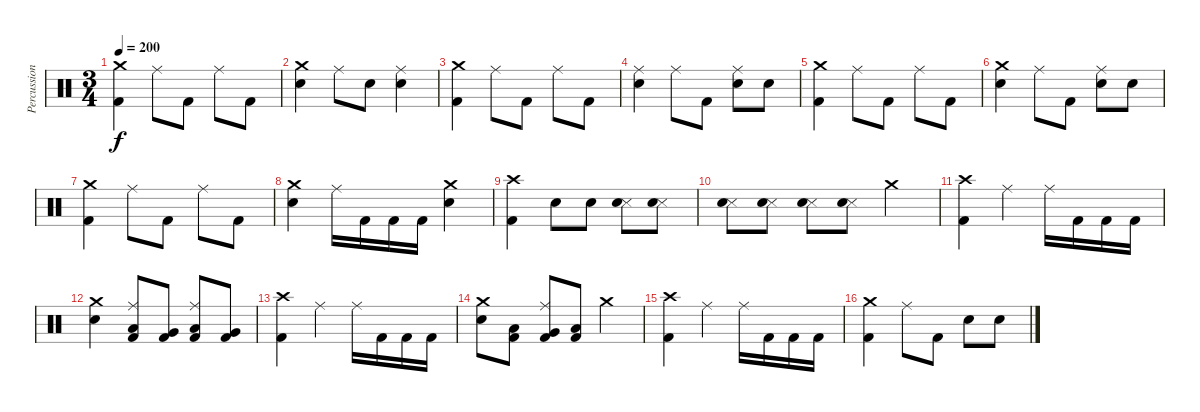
\track ("Percussion" "Percussion") {instrument percussion}
\staff {score}
\articulation defaults
\ts (3 4)
\tempo 200
\clef neutral
\ks c
("Crash medium (hit)" "Kick (hit) 2").4{dy f} "Ride (middle)".8 "Kick (hit) 2".8 "Ride (middle)".8 "Kick (hit) 2".8 |
("Crash medium (hit)" "Electric Snare (hit)").4 "Ride (middle)".8 "Electric Snare (hit)".8 ("Ride (middle)" "Electric Snare (hit)").4 |
("Crash medium (hit)" "Kick (hit) 2").4 "Ride (middle)".8 "Kick (hit) 2".8 "Ride (middle)".8 "Kick (hit) 2".8 |
("Ride (middle)" "Electric Snare (hit)").4 "Ride (middle)".8 "Kick (hit) 2".8 ("Ride (middle)" "Electric Snare (hit)").8 "Electric Snare (hit)".8 |
("Crash medium (hit)" "Kick (hit) 2").4 "Ride (middle)".8 "Kick (hit) 2".8 "Ride (middle)".8 "Kick (hit) 2".8 |
("Crash medium (hit)" "Electric Snare (hit)").4 "Ride (middle)".8 "Kick (hit) 2".8 ("Ride (middle)" "Electric Snare (hit)").8 "Electric Snare (hit)".8 |
("Crash medium (hit)" "Kick (hit) 2").4 "Ride (middle)".8 "Kick (hit) 2".8 "Ride (middle)".8 "Kick (hit) 2".8 |
("Crash medium (hit)" "Electric Snare (hit)").4 "Ride (middle)".16 "Kick (hit) 2".16 "Kick (hit) 2".16 "Kick (hit) 2".16 ("Crash medium (hit)" "Electric Snare (hit)").4 |
("Crash high (hit)" "Kick (hit) 2").4 "Electric Snare (hit)".8 "Electric Snare (hit)".8 ("Snare (side stick) 3" "Electric Snare (hit)").8 ("Snare (side stick) 3" "Electric Snare (hit)").8 |
("Snare (side stick) 3" "Electric Snare (hit)").8 ("Snare (side stick) 3" "Electric Snare (hit)").8 ("Snare (side stick) 3" "Electric Snare (hit)").8 ("Snare (side stick) 3" "Electric Snare (hit)").8 "Crash medium (hit)".4 |
("Crash high (hit)" "Kick (hit) 2").4 "Ride (middle)".4 "Ride (middle)".16 "Kick (hit) 2".16 "Kick (hit) 2".16 "Kick (hit) 2".16 |
("Crash medium (hit)" "Electric Snare (hit)").4 ("Ride (middle)" "Low Tom (hit)" "Kick (hit) 2").8 ("Very Low Tom (hit)" "Kick (hit) 2").8 ("Ride (middle)" "Low Tom (hit)" "Kick (hit) 2").8 ("Very Low Tom (hit)" "Kick (hit) 2").8 |
("Crash high (hit)" "Kick (hit) 2").4 "Ride (middle)".4 "Ride (middle)".16 "Kick (hit) 2".16 "Kick (hit) 2".16 "Kick (hit) 2".16 |
("Crash medium (hit)" "Electric Snare (hit)").8 ("Low Tom (hit)" "Kick (hit) 2").8 ("Ride (middle)" "Very Low Tom (hit)" "Kick (hit) 2").8 ("Low Tom (hit)" "Kick (hit) 2").8 "Crash medium (hit)".4 |
("Crash high (hit)" "Kick (hit) 2").4 "Ride (middle)".4 "Ride (middle)".16 "Kick (hit) 2".16 "Kick (hit) 2".16 "Kick (hit) 2".16 |
("Crash medium (hit)" "Kick (hit) 2").4 "Ride (middle)".8 "Kick (hit) 2".8 "Electric Snare (hit)".8 "Electric Snare (hit)".8
